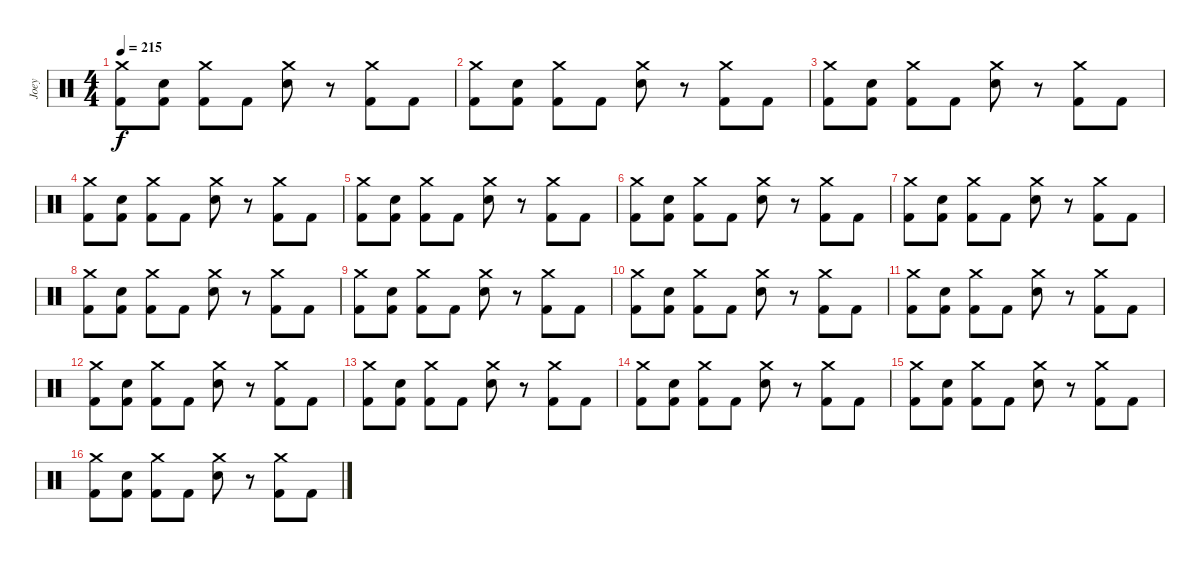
\track ("Joey" "Joey") {instrument percussion}
\staff {score}
\articulation defaults
\ts (4 4)
\tempo 215
\clef neutral
\ks c
("Crash medium (hit)" "Kick (hit) 2").8{dy f} ("Electric Snare (hit)" "Kick (hit) 2").8 ("Crash medium (hit)" "Kick (hit) 2").8 "Kick (hit) 2".8 ("Crash medium (hit)" "Electric Snare (hit)").8 r.8 ("Crash medium (hit)" "Kick (hit) 2").8 "Kick (hit) 2".8 |
("Crash medium (hit)" "Kick (hit) 2").8 ("Electric Snare (hit)" "Kick (hit) 2").8 ("Crash medium (hit)" "Kick (hit) 2").8 "Kick (hit) 2".8 ("Crash medium (hit)" "Electric Snare (hit)").8 r.8 ("Crash medium (hit)" "Kick (hit) 2").8 "Kick (hit) 2".8 |
("Crash medium (hit)" "Kick (hit) 2").8 ("Electric Snare (hit)" "Kick (hit) 2").8 ("Crash medium (hit)" "Kick (hit) 2").8 "Kick (hit) 2".8 ("Crash medium (hit)" "Electric Snare (hit)").8 r.8 ("Crash medium (hit)" "Kick (hit) 2").8 "Kick (hit) 2".8 |
("Crash medium (hit)" "Kick (hit) 2").8 ("Electric Snare (hit)" "Kick (hit) 2").8 ("Crash medium (hit)" "Kick (hit) 2").8 "Kick (hit) 2".8 ("Crash medium (hit)" "Electric Snare (hit)").8 r.8 ("Crash medium (hit)" "Kick (hit) 2").8 "Kick (hit) 2".8 |
("Crash medium (hit)" "Kick (hit) 2").8 ("Electric Snare (hit)" "Kick (hit) 2").8 ("Crash medium (hit)" "Kick (hit) 2").8 "Kick (hit) 2".8 ("Crash medium (hit)" "Electric Snare (hit)").8 r.8 ("Crash medium (hit)" "Kick (hit) 2").8 "Kick (hit) 2".8 |
("Crash medium (hit)" "Kick (hit) 2").8 ("Electric Snare (hit)" "Kick (hit) 2").8 ("Crash medium (hit)" "Kick (hit) 2").8 "Kick (hit) 2".8 ("Crash medium (hit)" "Electric Snare (hit)").8 r.8 ("Crash medium (hit)" "Kick (hit) 2").8 "Kick (hit) 2".8 |
("Crash medium (hit)" "Kick (hit) 2").8 ("Electric Snare (hit)" "Kick (hit) 2").8 ("Crash medium (hit)" "Kick (hit) 2").8 "Kick (hit) 2".8 ("Crash medium (hit)" "Electric Snare (hit)").8 r.8 ("Crash medium (hit)" "Kick (hit) 2").8 "Kick (hit) 2".8 |
("Crash medium (hit)" "Kick (hit) 2").8 ("Electric Snare (hit)" "Kick (hit) 2").8 ("Crash medium (hit)" "Kick (hit) 2").8 "Kick (hit) 2".8 ("Crash medium (hit)" "Electric Snare (hit)").8 r.8 ("Crash medium (hit)" "Kick (hit) 2").8 "Kick (hit) 2".8 |
("Crash medium (hit)" "Kick (hit) 2").8 ("Electric Snare (hit)" "Kick (hit) 2").8 ("Crash medium (hit)" "Kick (hit) 2").8 "Kick (hit) 2".8 ("Crash medium (hit)" "Electric Snare (hit)").8 r.8 ("Crash medium (hit)" "Kick (hit) 2").8 "Kick (hit) 2".8 |
("Crash medium (hit)" "Kick (hit) 2").8 ("Electric Snare (hit)" "Kick (hit) 2").8 ("Crash medium (hit)" "Kick (hit) 2").8 "Kick (hit) 2".8 ("Crash medium (hit)" "Electric Snare (hit)").8 r.8 ("Crash medium (hit)" "Kick (hit) 2").8 "Kick (hit) 2".8 |
("Crash medium (hit)" "Kick (hit) 2").8 ("Electric Snare (hit)" "Kick (hit) 2").8 ("Crash medium (hit)" "Kick (hit) 2").8 "Kick (hit) 2".8 ("Crash medium (hit)" "Electric Snare (hit)").8 r.8 ("Crash medium (hit)" "Kick (hit) 2").8 "Kick (hit) 2".8 |
("Crash medium (hit)" "Kick (hit) 2").8 ("Electric Snare (hit)" "Kick (hit) 2").8 ("Crash medium (hit)" "Kick (hit) 2").8 "Kick (hit) 2".8 ("Crash medium (hit)" "Electric Snare (hit)").8 r.8 ("Crash medium (hit)" "Kick (hit) 2").8 "Kick (hit) 2".8 |
("Crash medium (hit)" "Kick (hit) 2").8 ("Electric Snare (hit)" "Kick (hit) 2").8 ("Crash medium (hit)" "Kick (hit) 2").8 "Kick (hit) 2".8 ("Crash medium (hit)" "Electric Snare (hit)").8 r.8 ("Crash medium (hit)" "Kick (hit) 2").8 "Kick (hit) 2".8 |
("Crash medium (hit)" "Kick (hit) 2").8 ("Electric Snare (hit)" "Kick (hit) 2").8 ("Crash medium (hit)" "Kick (hit) 2").8 "Kick (hit) 2".8 ("Crash medium (hit)" "Electric Snare (hit)").8 r.8 ("Crash medium (hit)" "Kick (hit) 2").8 "Kick (hit) 2".8 |
("Crash medium (hit)" "Kick (hit) 2").8 ("Electric Snare (hit)" "Kick (hit) 2").8 ("Crash medium (hit)" "Kick (hit) 2").8 "Kick (hit) 2".8 ("Crash medium (hit)" "Electric Snare (hit)").8 r.8 ("Crash medium (hit)" "Kick (hit) 2").8 "Kick (hit) 2".8 |
("Crash medium (hit)" "Kick (hit) 2").8 ("Electric Snare (hit)" "Kick (hit) 2").8 ("Crash medium (hit)" "Kick (hit) 2").8 "Kick (hit) 2".8 ("Crash medium (hit)" "Electric Snare (hit)").8 r.8 ("Crash medium (hit)" "Kick (hit) 2").8 "Kick (hit) 2".8
